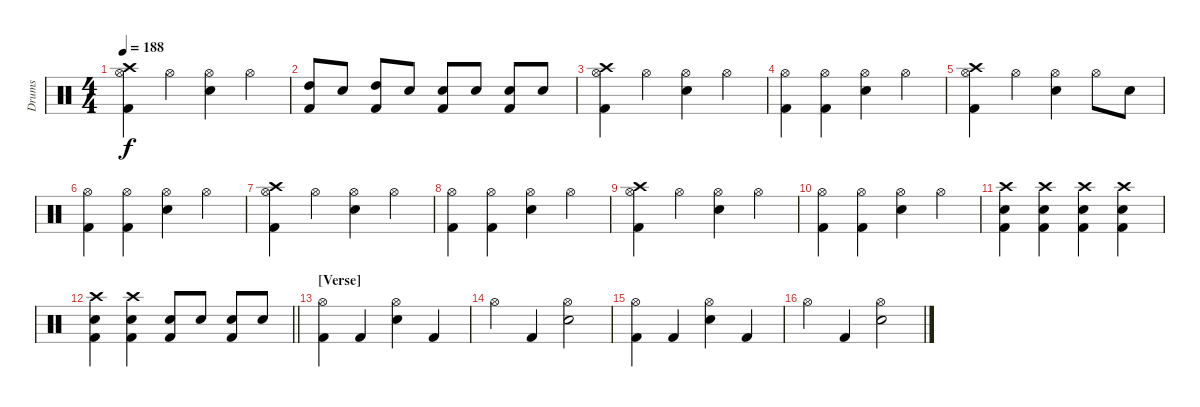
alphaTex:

\track ("Drums" "Drums") {instrument percussion}
\staff {score}
\articulation defaults
\ts (4 4)
\tempo 188
\clef neutral
\ks c
("Crash high (hit)" "Hi-Hat (open)" "Kick (hit) 2").4{dy f} "Hi-Hat (open)".4 ("Hi-Hat (open)" "Electric Snare (hit)").4 "Hi-Hat (open)".4 |
("High Tom (hit)" "Kick (hit) 2").8 "Electric Snare (hit)".8 ("High Tom (hit)" "Kick (hit) 2").8 "Electric Snare (hit)".8 ("Electric Snare (hit)" "Kick (hit) 2").8 "Electric Snare (hit)".8 ("Electric Snare (hit)" "Kick (hit) 2").8 "Electric Snare (hit)".8 |
("Crash high (hit)" "Hi-Hat (open)" "Kick (hit) 2").4 "Hi-Hat (open)".4 ("Hi-Hat (open)" "Electric Snare (hit)").4 "Hi-Hat (open)".4 |
("Hi-Hat (open)" "Kick (hit) 2").4 ("Hi-Hat (open)" "Kick (hit) 2").4 ("Hi-Hat (open)" "Electric Snare (hit)").4 "Hi-Hat (open)".4 |
("Crash high (hit)" "Hi-Hat (open)" "Kick (hit) 2").4 "Hi-Hat (open)".4 ("Hi-Hat (open)" "Electric Snare (hit)").4 "Hi-Hat (open)".8 "Electric Snare (hit)".8 |
("Hi-Hat (open)" "Kick (hit) 2").4 ("Hi-Hat (open)" "Kick (hit) 2").4 ("Hi-Hat (open)" "Electric Snare (hit)").4 "Hi-Hat (open)".4 |
("Crash high (hit)" "Hi-Hat (open)" "Kick (hit) 2").4 "Hi-Hat (open)".4 ("Hi-Hat (open)" "Electric Snare (hit)").4 "Hi-Hat (open)".4 |
("Hi-Hat (open)" "Kick (hit) 2").4 ("Hi-Hat (open)" "Kick (hit) 2").4 ("Hi-Hat (open)" "Electric Snare (hit)").4 "Hi-Hat (open)".4 |
("Crash high (hit)" "Hi-Hat (open)" "Kick (hit) 2").4 "Hi-Hat (open)".4 ("Hi-Hat (open)" "Electric Snare (hit)").4 "Hi-Hat (open)".4 |
("Hi-Hat (open)" "Kick (hit) 2").4 ("Hi-Hat (open)" "Kick (hit) 2").4 ("Hi-Hat (open)" "Electric Snare (hit)").4 "Hi-Hat (open)".4 |
("Crash high (hit)" "Electric Snare (hit)" "Kick (hit) 2").4 ("Crash high (hit)" "Electric Snare (hit)" "Kick (hit) 2").4 ("Crash high (hit)" "Electric Snare (hit)" "Kick (hit) 2").4 ("Crash high (hit)" "Electric Snare (hit)" "Kick (hit) 2").4 |
\barLineRight lightlight
("Crash high (hit)" "Electric Snare (hit)" "Kick (hit) 2").4 ("Crash high (hit)" "Electric Snare (hit)" "Kick (hit) 2").4 ("Electric Snare (hit)" "Kick (hit) 2").8 "Electric Snare (hit)".8 ("Electric Snare (hit)" "Kick (hit) 2").8 "Electric Snare (hit)".8 |
\section ("" "[Verse]")
("Hi-Hat (open)" "Kick (hit) 2").4 "Kick (hit) 2".4 ("Hi-Hat (open)" "Electric Snare (hit)").4 "Kick (hit) 2".4 |
"Hi-Hat (open)".4 "Kick (hit) 2".4 ("Hi-Hat (open)" "Electric Snare (hit)").2 |
("Hi-Hat (open)" "Kick (hit) 2").4 "Kick (hit) 2".4 ("Hi-Hat (open)" "Electric Snare (hit)").4 "Kick (hit) 2".4 |
"Hi-Hat (open)".4 "Kick (hit) 2".4 ("Hi-Hat (open)" "Electric Snare (hit)").2
